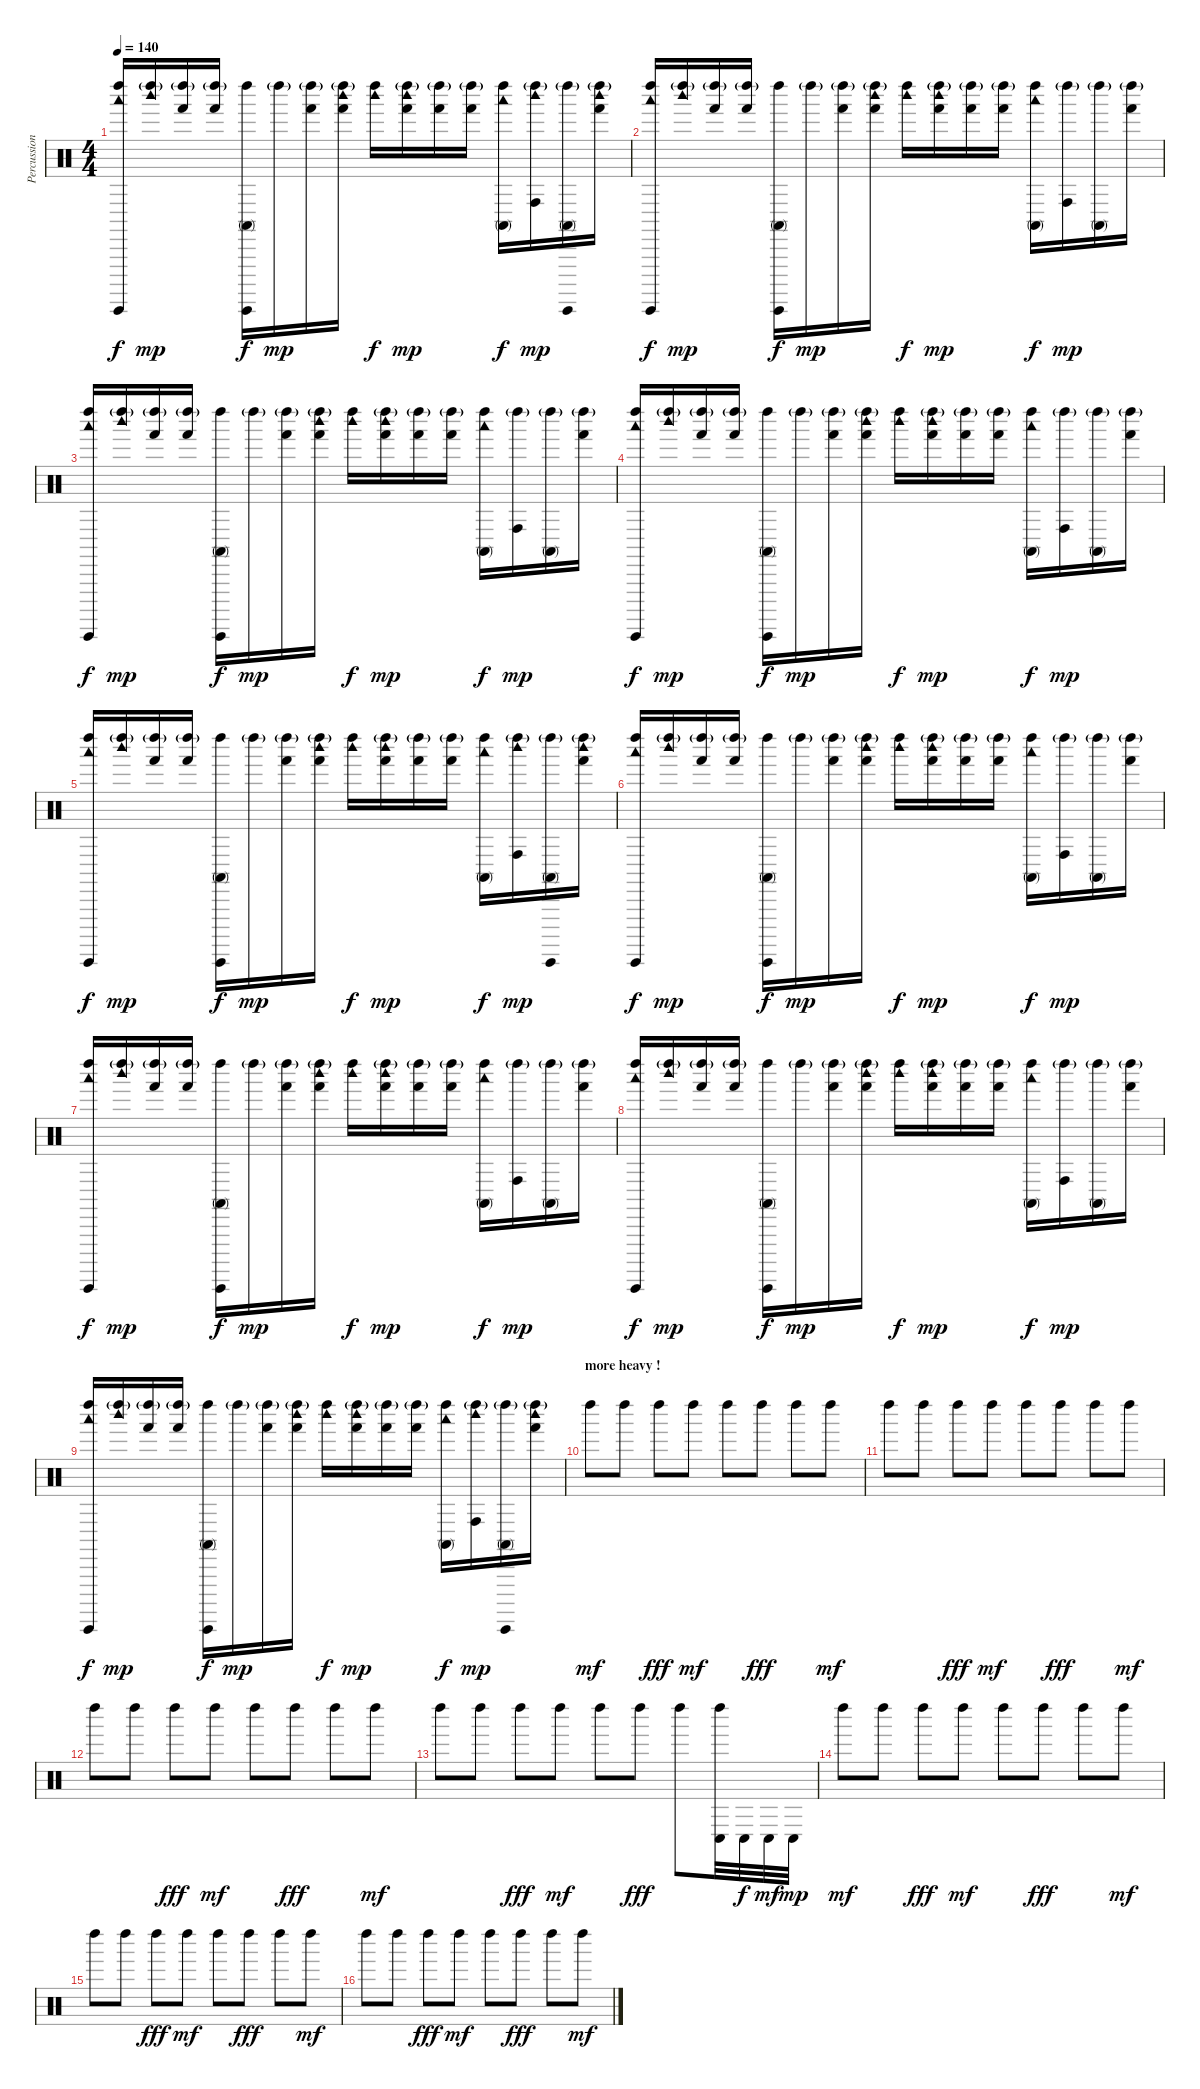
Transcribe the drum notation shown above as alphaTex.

\track ("Percussions" "Percussion") {instrument percussion}
\staff {score}
\articulation defaults
\ts (4 4)
\tempo 140
\clef neutral
\ks c
("Left Maraca (hit)" "Woodblock low (hit)" "Guiro (hit)").16{dy f} ("Left Maraca (hit)"{g} "Woodblock high (hit)").16{dy mp} ("Left Maraca (hit)"{g} "Hand (hit)").16 ("Left Maraca (hit)"{g} "Hand (hit)").16 ("Left Maraca (hit)" "Guiro (hit)" "Conga high (mute)").16{dy f} "Left Maraca (hit)"{g}.16{dy mp} ("Left Maraca (hit)"{g} "Hand (hit)").16 ("Left Maraca (hit)"{g} "Woodblock high (hit)" "Hand (hit)").16 ("Left Maraca (hit)" "Woodblock high (hit)").16{dy f} ("Left Maraca (hit)"{g} "Woodblock high (hit)" "Hand (hit)").16{dy mp} ("Left Maraca (hit)"{g} "Hand (hit)").16 ("Left Maraca (hit)"{g} "Hand (hit)").16 ("Left Maraca (hit)" "Woodblock low (hit)" "Conga high (mute)").16{dy f} ("Left Maraca (hit)"{g} "Woodblock high (hit)" "Conga high (hit)").16{dy mp} ("Left Maraca (hit)"{g} "Guiro (hit)" "Conga high (mute)").16 ("Left Maraca (hit)"{g} "Woodblock high (hit)" "Hand (hit)").16 |
("Left Maraca (hit)" "Woodblock low (hit)" "Guiro (hit)").16{dy f} ("Left Maraca (hit)"{g} "Woodblock high (hit)").16{dy mp} ("Left Maraca (hit)"{g} "Hand (hit)").16 ("Left Maraca (hit)"{g} "Hand (hit)").16 ("Left Maraca (hit)" "Guiro (hit)" "Conga high (mute)").16{dy f} "Left Maraca (hit)"{g}.16{dy mp} ("Left Maraca (hit)"{g} "Hand (hit)").16 ("Left Maraca (hit)"{g} "Woodblock high (hit)" "Hand (hit)").16 ("Left Maraca (hit)" "Woodblock high (hit)").16{dy f} ("Left Maraca (hit)"{g} "Woodblock high (hit)" "Hand (hit)").16{dy mp} ("Left Maraca (hit)"{g} "Hand (hit)").16 ("Left Maraca (hit)"{g} "Hand (hit)").16 ("Left Maraca (hit)" "Woodblock low (hit)" "Conga high (mute)").16{dy f} ("Left Maraca (hit)"{g} "Conga high (hit)").16{dy mp} ("Left Maraca (hit)"{g} "Conga high (mute)").16 ("Left Maraca (hit)"{g} "Hand (hit)").16 |
("Left Maraca (hit)" "Woodblock low (hit)" "Guiro (hit)").16{dy f} ("Left Maraca (hit)"{g} "Woodblock high (hit)").16{dy mp} ("Left Maraca (hit)"{g} "Hand (hit)").16 ("Left Maraca (hit)"{g} "Hand (hit)").16 ("Left Maraca (hit)" "Guiro (hit)" "Conga high (mute)").16{dy f} "Left Maraca (hit)"{g}.16{dy mp} ("Left Maraca (hit)"{g} "Hand (hit)").16 ("Left Maraca (hit)"{g} "Woodblock high (hit)" "Hand (hit)").16 ("Left Maraca (hit)" "Woodblock high (hit)").16{dy f} ("Left Maraca (hit)"{g} "Woodblock high (hit)" "Hand (hit)").16{dy mp} ("Left Maraca (hit)"{g} "Hand (hit)").16 ("Left Maraca (hit)"{g} "Hand (hit)").16 ("Left Maraca (hit)" "Woodblock low (hit)" "Conga high (mute)").16{dy f} ("Left Maraca (hit)"{g} "Conga high (hit)").16{dy mp} ("Left Maraca (hit)"{g} "Conga high (mute)").16 ("Left Maraca (hit)"{g} "Hand (hit)").16 |
("Left Maraca (hit)" "Woodblock low (hit)" "Guiro (hit)").16{dy f} ("Left Maraca (hit)"{g} "Woodblock high (hit)").16{dy mp} ("Left Maraca (hit)"{g} "Hand (hit)").16 ("Left Maraca (hit)"{g} "Hand (hit)").16 ("Left Maraca (hit)" "Guiro (hit)" "Conga high (mute)").16{dy f} "Left Maraca (hit)"{g}.16{dy mp} ("Left Maraca (hit)"{g} "Hand (hit)").16 ("Left Maraca (hit)"{g} "Woodblock high (hit)" "Hand (hit)").16 ("Left Maraca (hit)" "Woodblock high (hit)").16{dy f} ("Left Maraca (hit)"{g} "Woodblock high (hit)" "Hand (hit)").16{dy mp} ("Left Maraca (hit)"{g} "Hand (hit)").16 ("Left Maraca (hit)"{g} "Hand (hit)").16 ("Left Maraca (hit)" "Woodblock low (hit)" "Conga high (mute)").16{dy f} ("Left Maraca (hit)"{g} "Conga high (hit)").16{dy mp} ("Left Maraca (hit)"{g} "Conga high (mute)").16 ("Left Maraca (hit)"{g} "Hand (hit)").16 |
("Left Maraca (hit)" "Woodblock low (hit)" "Guiro (hit)").16{dy f} ("Left Maraca (hit)"{g} "Woodblock high (hit)").16{dy mp} ("Left Maraca (hit)"{g} "Hand (hit)").16 ("Left Maraca (hit)"{g} "Hand (hit)").16 ("Left Maraca (hit)" "Guiro (hit)" "Conga high (mute)").16{dy f} "Left Maraca (hit)"{g}.16{dy mp} ("Left Maraca (hit)"{g} "Hand (hit)").16 ("Left Maraca (hit)"{g} "Woodblock high (hit)" "Hand (hit)").16 ("Left Maraca (hit)" "Woodblock high (hit)").16{dy f} ("Left Maraca (hit)"{g} "Woodblock high (hit)" "Hand (hit)").16{dy mp} ("Left Maraca (hit)"{g} "Hand (hit)").16 ("Left Maraca (hit)"{g} "Hand (hit)").16 ("Left Maraca (hit)" "Woodblock low (hit)" "Conga high (mute)").16{dy f} ("Left Maraca (hit)"{g} "Woodblock high (hit)" "Conga high (hit)").16{dy mp} ("Left Maraca (hit)"{g} "Guiro (hit)" "Conga high (mute)").16 ("Left Maraca (hit)"{g} "Woodblock high (hit)" "Hand (hit)").16 |
("Left Maraca (hit)" "Woodblock low (hit)" "Guiro (hit)").16{dy f} ("Left Maraca (hit)"{g} "Woodblock high (hit)").16{dy mp} ("Left Maraca (hit)"{g} "Hand (hit)").16 ("Left Maraca (hit)"{g} "Hand (hit)").16 ("Left Maraca (hit)" "Guiro (hit)" "Conga high (mute)").16{dy f} "Left Maraca (hit)"{g}.16{dy mp} ("Left Maraca (hit)"{g} "Hand (hit)").16 ("Left Maraca (hit)"{g} "Woodblock high (hit)" "Hand (hit)").16 ("Left Maraca (hit)" "Woodblock high (hit)").16{dy f} ("Left Maraca (hit)"{g} "Woodblock high (hit)" "Hand (hit)").16{dy mp} ("Left Maraca (hit)"{g} "Hand (hit)").16 ("Left Maraca (hit)"{g} "Hand (hit)").16 ("Left Maraca (hit)" "Woodblock low (hit)" "Conga high (mute)").16{dy f} ("Left Maraca (hit)"{g} "Conga high (hit)").16{dy mp} ("Left Maraca (hit)"{g} "Conga high (mute)").16 ("Left Maraca (hit)"{g} "Hand (hit)").16 |
("Left Maraca (hit)" "Woodblock low (hit)" "Guiro (hit)").16{dy f} ("Left Maraca (hit)"{g} "Woodblock high (hit)").16{dy mp} ("Left Maraca (hit)"{g} "Hand (hit)").16 ("Left Maraca (hit)"{g} "Hand (hit)").16 ("Left Maraca (hit)" "Guiro (hit)" "Conga high (mute)").16{dy f} "Left Maraca (hit)"{g}.16{dy mp} ("Left Maraca (hit)"{g} "Hand (hit)").16 ("Left Maraca (hit)"{g} "Woodblock high (hit)" "Hand (hit)").16 ("Left Maraca (hit)" "Woodblock high (hit)").16{dy f} ("Left Maraca (hit)"{g} "Woodblock high (hit)" "Hand (hit)").16{dy mp} ("Left Maraca (hit)"{g} "Hand (hit)").16 ("Left Maraca (hit)"{g} "Hand (hit)").16 ("Left Maraca (hit)" "Woodblock low (hit)" "Conga high (mute)").16{dy f} ("Left Maraca (hit)"{g} "Conga high (hit)").16{dy mp} ("Left Maraca (hit)"{g} "Conga high (mute)").16 ("Left Maraca (hit)"{g} "Hand (hit)").16 |
("Left Maraca (hit)" "Woodblock low (hit)" "Guiro (hit)").16{dy f} ("Left Maraca (hit)"{g} "Woodblock high (hit)").16{dy mp} ("Left Maraca (hit)"{g} "Hand (hit)").16 ("Left Maraca (hit)"{g} "Hand (hit)").16 ("Left Maraca (hit)" "Guiro (hit)" "Conga high (mute)").16{dy f} "Left Maraca (hit)"{g}.16{dy mp} ("Left Maraca (hit)"{g} "Hand (hit)").16 ("Left Maraca (hit)"{g} "Woodblock high (hit)" "Hand (hit)").16 ("Left Maraca (hit)" "Woodblock high (hit)").16{dy f} ("Left Maraca (hit)"{g} "Woodblock high (hit)" "Hand (hit)").16{dy mp} ("Left Maraca (hit)"{g} "Hand (hit)").16 ("Left Maraca (hit)"{g} "Hand (hit)").16 ("Left Maraca (hit)" "Woodblock low (hit)" "Conga high (mute)").16{dy f} ("Left Maraca (hit)"{g} "Conga high (hit)").16{dy mp} ("Left Maraca (hit)"{g} "Conga high (mute)").16 ("Left Maraca (hit)"{g} "Hand (hit)").16 |
("Left Maraca (hit)" "Woodblock low (hit)" "Guiro (hit)").16{dy f} ("Left Maraca (hit)"{g} "Woodblock high (hit)").16{dy mp} ("Left Maraca (hit)"{g} "Hand (hit)").16 ("Left Maraca (hit)"{g} "Hand (hit)").16 ("Left Maraca (hit)" "Guiro (hit)" "Conga high (mute)").16{dy f} "Left Maraca (hit)"{g}.16{dy mp} ("Left Maraca (hit)"{g} "Hand (hit)").16 ("Left Maraca (hit)"{g} "Woodblock high (hit)" "Hand (hit)").16 ("Left Maraca (hit)" "Woodblock high (hit)").16{dy f} ("Left Maraca (hit)"{g} "Woodblock high (hit)" "Hand (hit)").16{dy mp} ("Left Maraca (hit)"{g} "Hand (hit)").16 ("Left Maraca (hit)"{g} "Hand (hit)").16 ("Left Maraca (hit)" "Woodblock low (hit)" "Conga high (mute)").16{dy f} ("Left Maraca (hit)"{g} "Woodblock high (hit)" "Conga high (hit)").16{dy mp} ("Left Maraca (hit)"{g} "Guiro (hit)" "Conga high (mute)").16 ("Left Maraca (hit)"{g} "Woodblock high (hit)" "Hand (hit)").16 |
\section ("" "more heavy !")
"Left Maraca (hit)".8{dy mf} "Left Maraca (hit)".8 "Left Maraca (hit)".8{dy fff} "Left Maraca (hit)".8{dy mf} "Left Maraca (hit)".8 "Left Maraca (hit)".8{dy fff} "Left Maraca (hit)".8 "Left Maraca (hit)".8{dy mf} |
"Left Maraca (hit)".8 "Left Maraca (hit)".8 "Left Maraca (hit)".8{dy fff} "Left Maraca (hit)".8{dy mf} "Left Maraca (hit)".8 "Left Maraca (hit)".8{dy fff} "Left Maraca (hit)".8 "Left Maraca (hit)".8{dy mf} |
"Left Maraca (hit)".8 "Left Maraca (hit)".8 "Left Maraca (hit)".8{dy fff} "Left Maraca (hit)".8{dy mf} "Left Maraca (hit)".8 "Left Maraca (hit)".8{dy fff} "Left Maraca (hit)".8 "Left Maraca (hit)".8{dy mf} |
"Left Maraca (hit)".8 "Left Maraca (hit)".8 "Left Maraca (hit)".8{dy fff} "Left Maraca (hit)".8{dy mf} "Left Maraca (hit)".8 "Left Maraca (hit)".8{dy fff} "Left Maraca (hit)".8 ("Left Maraca (hit)" "Conga low (hit)").32 "Conga low (hit)".32{dy f} "Conga low (hit)".32{dy mf} "Conga low (hit)".32{dy mp} |
"Left Maraca (hit)".8{dy mf} "Left Maraca (hit)".8 "Left Maraca (hit)".8{dy fff} "Left Maraca (hit)".8{dy mf} "Left Maraca (hit)".8 "Left Maraca (hit)".8{dy fff} "Left Maraca (hit)".8 "Left Maraca (hit)".8{dy mf} |
"Left Maraca (hit)".8 "Left Maraca (hit)".8 "Left Maraca (hit)".8{dy fff} "Left Maraca (hit)".8{dy mf} "Left Maraca (hit)".8 "Left Maraca (hit)".8{dy fff} "Left Maraca (hit)".8 "Left Maraca (hit)".8{dy mf} |
"Left Maraca (hit)".8 "Left Maraca (hit)".8 "Left Maraca (hit)".8{dy fff} "Left Maraca (hit)".8{dy mf} "Left Maraca (hit)".8 "Left Maraca (hit)".8{dy fff} "Left Maraca (hit)".8 "Left Maraca (hit)".8{dy mf}
